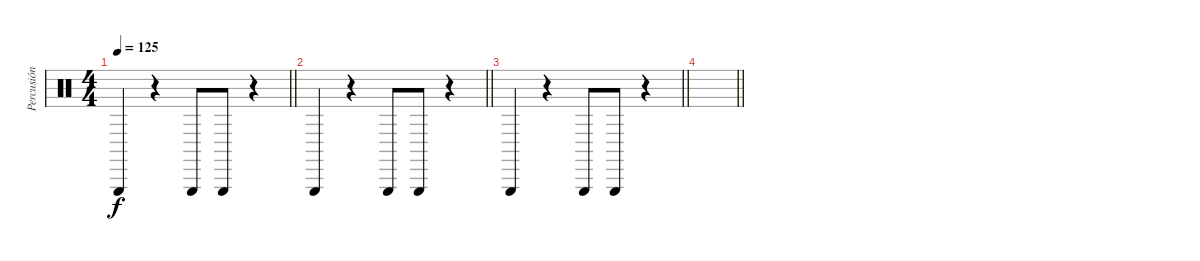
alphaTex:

\track ("Percusión" "Percusión") {instrument percussion}
\staff {score}
\articulation defaults
\ts (4 4)
\tempo 125
\clef neutral
\barLineRight lightlight
\ks c "Triangle (hit)".4{dy f}
r.4 "Triangle (hit)".8 "Triangle (hit)".8 r.4 |
\barLineRight lightlight "Triangle (hit)".4
r.4 "Triangle (hit)".8 "Triangle (hit)".8 r.4 |
\barLineRight lightlight "Triangle (hit)".4
r.4 "Triangle (hit)".8 "Triangle (hit)".8 r.4 |
\barLineRight lightlight
